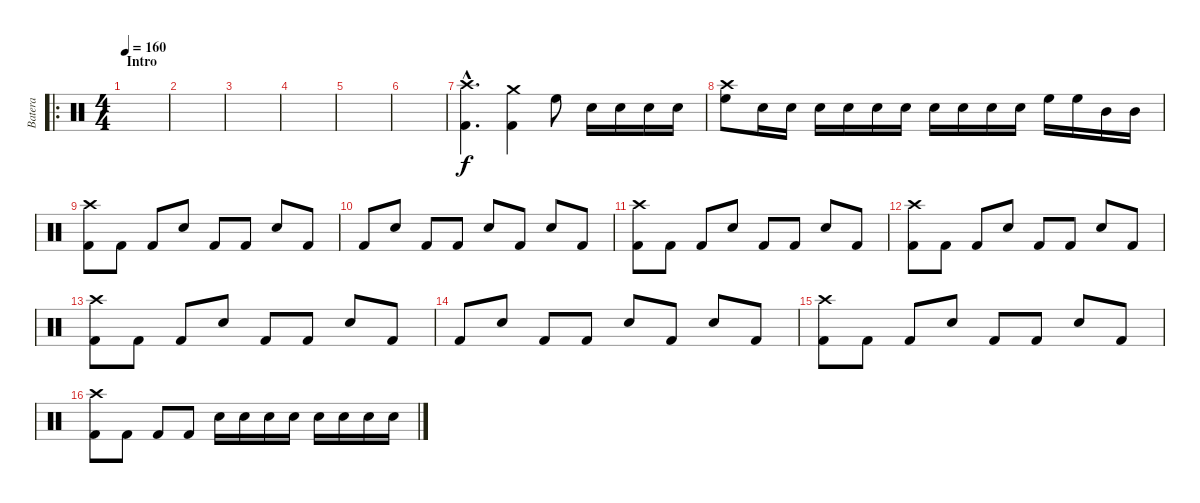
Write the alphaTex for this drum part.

\track ("Batera" "Batera") {instrument percussion}
\staff {score}
\articulation defaults
\ro
\ts (4 4)
\section ("" "Intro")
\tempo 160
\clef neutral
\ks c
|
|
|
|
|
|
("Crash high (hit)"{hac} "Kick (hit) 2"{hac}).4{d} ("Crash medium (hit)" "Kick (hit) 2").4 "High Floor Tom (hit)".8 "Electric Snare (hit)".16 "Electric Snare (hit)".16 "Electric Snare (hit)".16 "Electric Snare (hit)".16 |
("Crash high (hit)" "High Floor Tom (hit)").8 "Electric Snare (hit)".16 "Electric Snare (hit)".16 "Electric Snare (hit)".16 "Electric Snare (hit)".16 "Electric Snare (hit)".16 "Electric Snare (hit)".16 "Electric Snare (hit)".16 "Electric Snare (hit)".16 "Electric Snare (hit)".16 "Electric Snare (hit)".16 "High Floor Tom (hit)".16 "High Floor Tom (hit)".16 "Mid Tom (hit)".16 "Mid Tom (hit)".16 |
("Crash high (hit)" "Kick (hit) 2").8 "Kick (hit) 2".8 "Kick (hit) 2".8 "Electric Snare (hit)".8 "Kick (hit) 2".8 "Kick (hit) 2".8 "Electric Snare (hit)".8 "Kick (hit) 2".8 |
"Kick (hit) 2".8 "Electric Snare (hit)".8 "Kick (hit) 2".8 "Kick (hit) 2".8 "Electric Snare (hit)".8 "Kick (hit) 2".8 "Electric Snare (hit)".8 "Kick (hit) 2".8 |
("Crash high (hit)" "Kick (hit) 2").8 "Kick (hit) 2".8 "Kick (hit) 2".8 "Electric Snare (hit)".8 "Kick (hit) 2".8 "Kick (hit) 2".8 "Electric Snare (hit)".8 "Kick (hit) 2".8 |
("Crash high (hit)" "Kick (hit) 2").8 "Kick (hit) 2".8 "Kick (hit) 2".8 "Electric Snare (hit)".8 "Kick (hit) 2".8 "Kick (hit) 2".8 "Electric Snare (hit)".8 "Kick (hit) 2".8 |
("Crash high (hit)" "Kick (hit) 2").8 "Kick (hit) 2".8 "Kick (hit) 2".8 "Electric Snare (hit)".8 "Kick (hit) 2".8 "Kick (hit) 2".8 "Electric Snare (hit)".8 "Kick (hit) 2".8 |
"Kick (hit) 2".8 "Electric Snare (hit)".8 "Kick (hit) 2".8 "Kick (hit) 2".8 "Electric Snare (hit)".8 "Kick (hit) 2".8 "Electric Snare (hit)".8 "Kick (hit) 2".8 |
("Crash high (hit)" "Kick (hit) 2").8 "Kick (hit) 2".8 "Kick (hit) 2".8 "Electric Snare (hit)".8 "Kick (hit) 2".8 "Kick (hit) 2".8 "Electric Snare (hit)".8 "Kick (hit) 2".8 |
("Crash high (hit)" "Kick (hit) 2").8 "Kick (hit) 2".8 "Kick (hit) 2".8 "Kick (hit) 2".8 "Electric Snare (hit)".16 "Electric Snare (hit)".16 "Electric Snare (hit)".16 "Electric Snare (hit)".16 "Electric Snare (hit)".16 "Electric Snare (hit)".16 "Electric Snare (hit)".16 "Electric Snare (hit)".16
